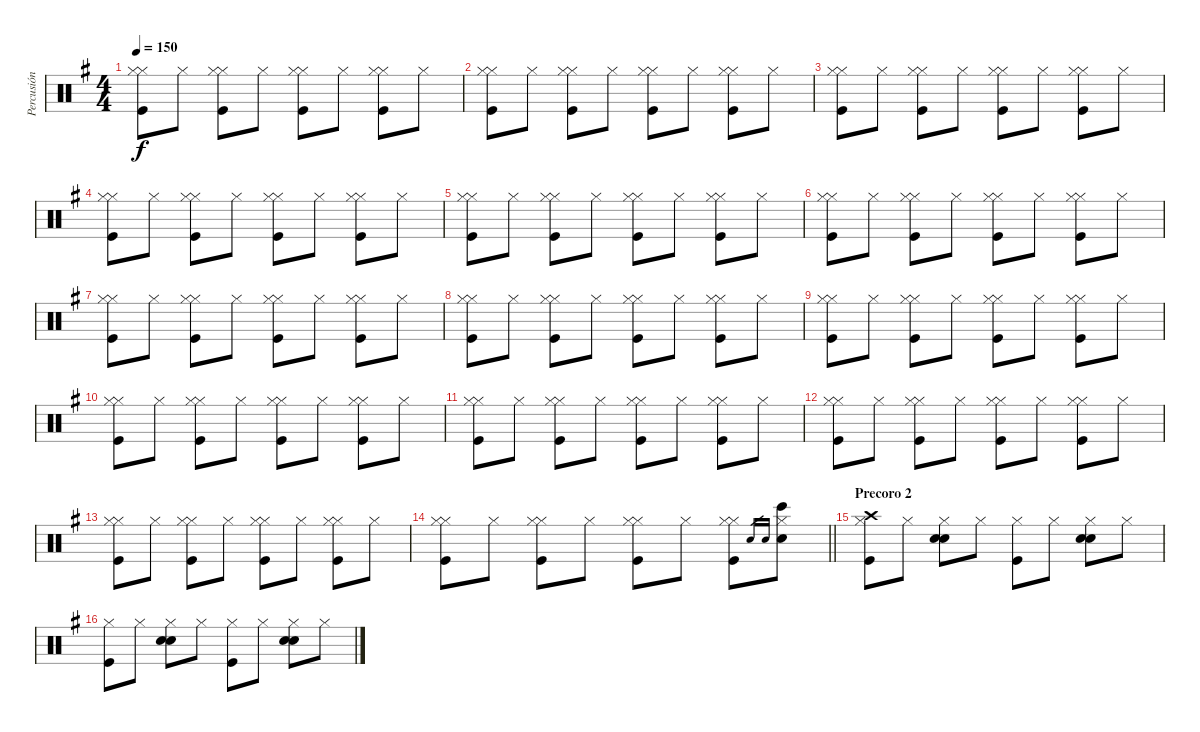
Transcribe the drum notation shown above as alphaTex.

\track ("Percusión" "Percusión") {instrument percussion}
\staff {score}
\articulation defaults
\ts (4 4)
\tempo 150
\clef neutral
\ks g
("Hi-Hat (closed)" "Kick (hit)" "Hi-Hat (closed)").8{dy f} "Hi-Hat (closed)".8 ("Hi-Hat (closed)" "Kick (hit)" "Hi-Hat (closed)").8 "Hi-Hat (closed)".8 ("Hi-Hat (closed)" "Kick (hit)" "Hi-Hat (closed)").8 "Hi-Hat (closed)".8 ("Hi-Hat (closed)" "Kick (hit)" "Hi-Hat (closed)").8 "Hi-Hat (closed)".8 |
("Hi-Hat (closed)" "Kick (hit)" "Hi-Hat (closed)").8 "Hi-Hat (closed)".8 ("Hi-Hat (closed)" "Kick (hit)" "Hi-Hat (closed)").8 "Hi-Hat (closed)".8 ("Hi-Hat (closed)" "Kick (hit)" "Hi-Hat (closed)").8 "Hi-Hat (closed)".8 ("Hi-Hat (closed)" "Kick (hit)" "Hi-Hat (closed)").8 "Hi-Hat (closed)".8 |
("Hi-Hat (closed)" "Kick (hit)" "Hi-Hat (closed)").8 "Hi-Hat (closed)".8 ("Hi-Hat (closed)" "Kick (hit)" "Hi-Hat (closed)").8 "Hi-Hat (closed)".8 ("Hi-Hat (closed)" "Kick (hit)" "Hi-Hat (closed)").8 "Hi-Hat (closed)".8 ("Hi-Hat (closed)" "Kick (hit)" "Hi-Hat (closed)").8 "Hi-Hat (closed)".8 |
("Hi-Hat (closed)" "Kick (hit)" "Hi-Hat (closed)").8 "Hi-Hat (closed)".8 ("Hi-Hat (closed)" "Kick (hit)" "Hi-Hat (closed)").8 "Hi-Hat (closed)".8 ("Hi-Hat (closed)" "Kick (hit)" "Hi-Hat (closed)").8 "Hi-Hat (closed)".8 ("Hi-Hat (closed)" "Kick (hit)" "Hi-Hat (closed)").8 "Hi-Hat (closed)".8 |
("Hi-Hat (closed)" "Kick (hit)" "Hi-Hat (closed)").8 "Hi-Hat (closed)".8 ("Hi-Hat (closed)" "Kick (hit)" "Hi-Hat (closed)").8 "Hi-Hat (closed)".8 ("Hi-Hat (closed)" "Kick (hit)" "Hi-Hat (closed)").8 "Hi-Hat (closed)".8 ("Hi-Hat (closed)" "Kick (hit)" "Hi-Hat (closed)").8 "Hi-Hat (closed)".8 |
("Hi-Hat (closed)" "Kick (hit)" "Hi-Hat (closed)").8 "Hi-Hat (closed)".8 ("Hi-Hat (closed)" "Kick (hit)" "Hi-Hat (closed)").8 "Hi-Hat (closed)".8 ("Hi-Hat (closed)" "Kick (hit)" "Hi-Hat (closed)").8 "Hi-Hat (closed)".8 ("Hi-Hat (closed)" "Kick (hit)" "Hi-Hat (closed)").8 "Hi-Hat (closed)".8 |
("Hi-Hat (closed)" "Kick (hit)" "Hi-Hat (closed)").8 "Hi-Hat (closed)".8 ("Hi-Hat (closed)" "Kick (hit)" "Hi-Hat (closed)").8 "Hi-Hat (closed)".8 ("Hi-Hat (closed)" "Kick (hit)" "Hi-Hat (closed)").8 "Hi-Hat (closed)".8 ("Hi-Hat (closed)" "Kick (hit)" "Hi-Hat (closed)").8 "Hi-Hat (closed)".8 |
("Hi-Hat (closed)" "Kick (hit)" "Hi-Hat (closed)").8 "Hi-Hat (closed)".8 ("Hi-Hat (closed)" "Kick (hit)" "Hi-Hat (closed)").8 "Hi-Hat (closed)".8 ("Hi-Hat (closed)" "Kick (hit)" "Hi-Hat (closed)").8 "Hi-Hat (closed)".8 ("Hi-Hat (closed)" "Kick (hit)" "Hi-Hat (closed)").8 "Hi-Hat (closed)".8 |
("Hi-Hat (closed)" "Kick (hit)" "Hi-Hat (closed)").8 "Hi-Hat (closed)".8 ("Hi-Hat (closed)" "Kick (hit)" "Hi-Hat (closed)").8 "Hi-Hat (closed)".8 ("Hi-Hat (closed)" "Kick (hit)" "Hi-Hat (closed)").8 "Hi-Hat (closed)".8 ("Hi-Hat (closed)" "Kick (hit)" "Hi-Hat (closed)").8 "Hi-Hat (closed)".8 |
("Hi-Hat (closed)" "Kick (hit)" "Hi-Hat (closed)").8 "Hi-Hat (closed)".8 ("Hi-Hat (closed)" "Kick (hit)" "Hi-Hat (closed)").8 "Hi-Hat (closed)".8 ("Hi-Hat (closed)" "Kick (hit)" "Hi-Hat (closed)").8 "Hi-Hat (closed)".8 ("Hi-Hat (closed)" "Kick (hit)" "Hi-Hat (closed)").8 "Hi-Hat (closed)".8 |
("Hi-Hat (closed)" "Kick (hit)" "Hi-Hat (closed)").8 "Hi-Hat (closed)".8 ("Hi-Hat (closed)" "Kick (hit)" "Hi-Hat (closed)").8 "Hi-Hat (closed)".8 ("Hi-Hat (closed)" "Kick (hit)" "Hi-Hat (closed)").8 "Hi-Hat (closed)".8 ("Hi-Hat (closed)" "Kick (hit)" "Hi-Hat (closed)").8 "Hi-Hat (closed)".8 |
("Hi-Hat (closed)" "Kick (hit)" "Hi-Hat (closed)").8 "Hi-Hat (closed)".8 ("Hi-Hat (closed)" "Kick (hit)" "Hi-Hat (closed)").8 "Hi-Hat (closed)".8 ("Hi-Hat (closed)" "Kick (hit)" "Hi-Hat (closed)").8 "Hi-Hat (closed)".8 ("Hi-Hat (closed)" "Kick (hit)" "Hi-Hat (closed)").8 "Hi-Hat (closed)".8 |
("Hi-Hat (closed)" "Kick (hit)" "Hi-Hat (closed)").8 "Hi-Hat (closed)".8 ("Hi-Hat (closed)" "Kick (hit)" "Hi-Hat (closed)").8 "Hi-Hat (closed)".8 ("Hi-Hat (closed)" "Kick (hit)" "Hi-Hat (closed)").8 "Hi-Hat (closed)".8 ("Hi-Hat (closed)" "Kick (hit)" "Hi-Hat (closed)").8 "Hi-Hat (closed)".8 |
\barLineRight lightlight
("Hi-Hat (closed)" "Kick (hit)" "Hi-Hat (closed)").8 "Hi-Hat (closed)".8 ("Hi-Hat (closed)" "Kick (hit)" "Hi-Hat (closed)").8 "Hi-Hat (closed)".8 ("Hi-Hat (closed)" "Kick (hit)" "Hi-Hat (closed)").8 "Hi-Hat (closed)".8 ("Hi-Hat (closed)" "Kick (hit)" "Hi-Hat (closed)").8 "Snare (hit) 2".16{gr} "Snare (hit)".16{gr} ("Hi-Hat (closed)" "Snare (hit) 2" "Bongo High (hit)").8 |
\section ("" "Precoro 2")
("Hi-Hat (closed)" "Kick (hit)" "Crash high (hit)").8 "Hi-Hat (closed)".8 ("Hi-Hat (closed)" "Snare (hit) 2" "Hand Clap (hit)").8 "Hi-Hat (closed)".8 ("Hi-Hat (closed)" "Kick (hit)").8 "Hi-Hat (closed)".8 ("Hi-Hat (closed)" "Snare (hit) 2" "Hand Clap (hit)").8 "Hi-Hat (closed)".8 |
("Hi-Hat (closed)" "Kick (hit)").8 "Hi-Hat (closed)".8 ("Hi-Hat (closed)" "Snare (hit) 2" "Hand Clap (hit)").8 "Hi-Hat (closed)".8 ("Hi-Hat (closed)" "Kick (hit)").8 "Hi-Hat (closed)".8 ("Hi-Hat (closed)" "Snare (hit) 2" "Hand Clap (hit)").8 "Hi-Hat (closed)".8
